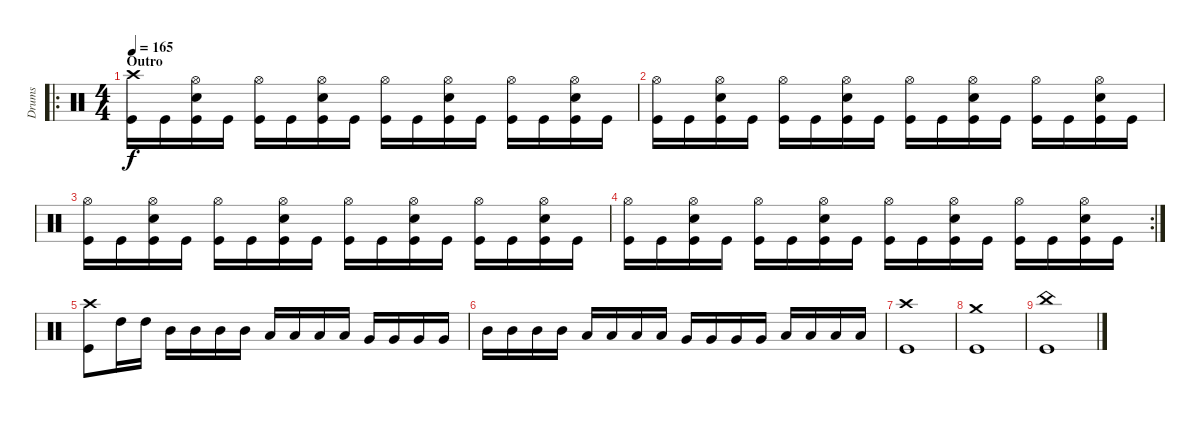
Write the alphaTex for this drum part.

\track ("Drums" "Drums") {instrument percussion}
\staff {score}
\articulation defaults
\ro
\ts (4 4)
\section ("" "Outro")
\tempo 165
\clef neutral
\ks c
("Crash high (hit)" "Kick (hit)").16{dy f} "Kick (hit)".16 ("Hi-Hat (open)" "Snare (hit) 2" "Kick (hit)").16 "Kick (hit)".16 ("Hi-Hat (open)" "Kick (hit)").16 "Kick (hit)".16 ("Hi-Hat (open)" "Snare (hit) 2" "Kick (hit)").16 "Kick (hit)".16 ("Hi-Hat (open)" "Kick (hit)").16 "Kick (hit)".16 ("Hi-Hat (open)" "Snare (hit) 2" "Kick (hit)").16 "Kick (hit)".16 ("Hi-Hat (open)" "Kick (hit)").16 "Kick (hit)".16 ("Hi-Hat (open)" "Snare (hit) 2" "Kick (hit)").16 "Kick (hit)".16 |
("Hi-Hat (open)" "Kick (hit)").16 "Kick (hit)".16 ("Hi-Hat (open)" "Snare (hit) 2" "Kick (hit)").16 "Kick (hit)".16 ("Hi-Hat (open)" "Kick (hit)").16 "Kick (hit)".16 ("Hi-Hat (open)" "Snare (hit) 2" "Kick (hit)").16 "Kick (hit)".16 ("Hi-Hat (open)" "Kick (hit)").16 "Kick (hit)".16 ("Hi-Hat (open)" "Snare (hit) 2" "Kick (hit)").16 "Kick (hit)".16 ("Hi-Hat (open)" "Kick (hit)").16 "Kick (hit)".16 ("Hi-Hat (open)" "Snare (hit) 2" "Kick (hit)").16 "Kick (hit)".16 |
("Hi-Hat (open)" "Kick (hit)").16 "Kick (hit)".16 ("Hi-Hat (open)" "Snare (hit) 2" "Kick (hit)").16 "Kick (hit)".16 ("Hi-Hat (open)" "Kick (hit)").16 "Kick (hit)".16 ("Hi-Hat (open)" "Snare (hit) 2" "Kick (hit)").16 "Kick (hit)".16 ("Hi-Hat (open)" "Kick (hit)").16 "Kick (hit)".16 ("Hi-Hat (open)" "Snare (hit) 2" "Kick (hit)").16 "Kick (hit)".16 ("Hi-Hat (open)" "Kick (hit)").16 "Kick (hit)".16 ("Hi-Hat (open)" "Snare (hit) 2" "Kick (hit)").16 "Kick (hit)".16 |
\rc 2
("Hi-Hat (open)" "Kick (hit)").16 "Kick (hit)".16 ("Hi-Hat (open)" "Snare (hit) 2" "Kick (hit)").16 "Kick (hit)".16 ("Hi-Hat (open)" "Kick (hit)").16 "Kick (hit)".16 ("Hi-Hat (open)" "Snare (hit) 2" "Kick (hit)").16 "Kick (hit)".16 ("Hi-Hat (open)" "Kick (hit)").16 "Kick (hit)".16 ("Hi-Hat (open)" "Snare (hit) 2" "Kick (hit)").16 "Kick (hit)".16 ("Hi-Hat (open)" "Kick (hit)").16 "Kick (hit)".16 ("Hi-Hat (open)" "Snare (hit) 2" "Kick (hit)").16 "Kick (hit)".16 |
("Crash high (hit)" "Kick (hit)").8 "High Tom (hit)".16 "High Tom (hit)".16 "Mid Tom (hit)".16 "Mid Tom (hit)".16 "Mid Tom (hit)".16 "Mid Tom (hit)".16 "Low Tom (hit)".16 "Low Tom (hit)".16 "Low Tom (hit)".16 "Low Tom (hit)".16 "Very Low Tom (hit)".16 "Very Low Tom (hit)".16 "Very Low Tom (hit)".16 "Very Low Tom (hit)".16 |
"Mid Tom (hit)".16 "Mid Tom (hit)".16 "Mid Tom (hit)".16 "Mid Tom (hit)".16 "Low Tom (hit)".16 "Low Tom (hit)".16 "Low Tom (hit)".16 "Low Tom (hit)".16 "Very Low Tom (hit)".16 "Very Low Tom (hit)".16 "Very Low Tom (hit)".16 "Very Low Tom (hit)".16 "Low Floor Tom (hit)".16 "Low Floor Tom (hit)".16 "Low Floor Tom (hit)".16 "Low Floor Tom (hit)".16 |
("Crash high (hit)" "Kick (hit)").1 |
("Crash medium (hit)" "Kick (hit)").1 |
("China (hit)" "Kick (hit)").1
